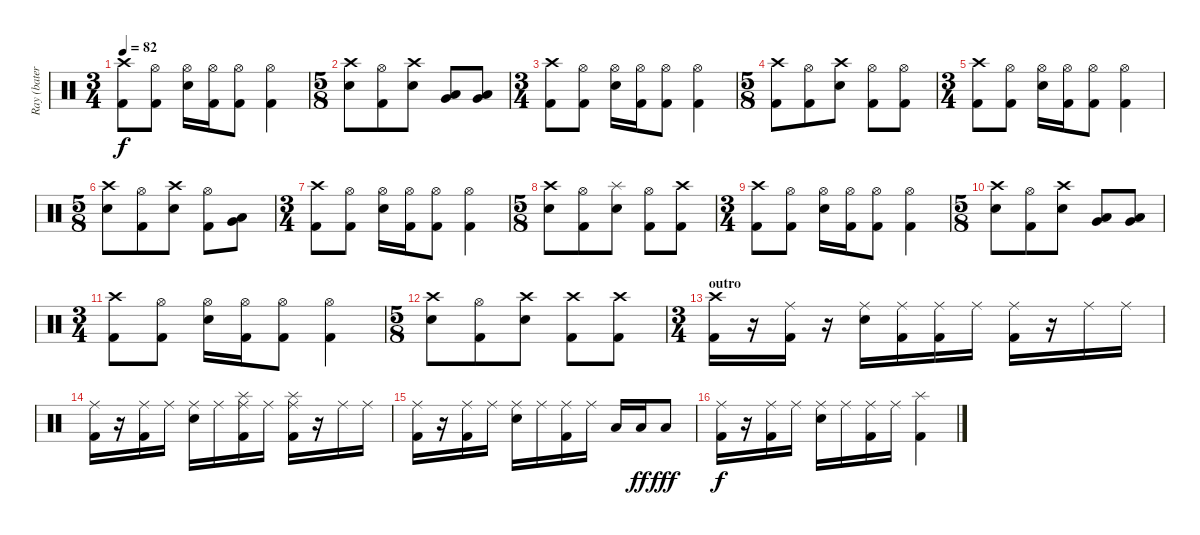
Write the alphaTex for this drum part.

\track ("Ray (batería)" "Ray (bater") {instrument percussion}
\staff {score}
\articulation defaults
\ts (3 4)
\tempo 82
\clef neutral
\ks c
("Crash high (hit)" "Kick (hit) 2").8{dy f} ("Hi-Hat (open)" "Kick (hit) 2").8 ("Hi-Hat (open)" "Snare (hit) 2").16 ("Hi-Hat (open)" "Kick (hit) 2").16 ("Hi-Hat (open)" "Kick (hit) 2").8 ("Hi-Hat (open)" "Kick (hit) 2").4 |
\ts (5 8)
("Crash high (hit)" "Snare (hit) 2").8 ("Hi-Hat (open)" "Kick (hit) 2").8 ("Crash high (hit)" "Snare (hit) 2").8 ("Low Tom (hit)" "Very Low Tom (hit)").8 ("Low Tom (hit)" "Very Low Tom (hit)").8 |
\ts (3 4)
("Crash high (hit)" "Kick (hit) 2").8 ("Hi-Hat (open)" "Kick (hit) 2").8 ("Hi-Hat (open)" "Snare (hit) 2").16 ("Hi-Hat (open)" "Kick (hit) 2").16 ("Hi-Hat (open)" "Kick (hit) 2").8 ("Hi-Hat (open)" "Kick (hit) 2").4 |
\ts (5 8)
("Crash high (hit)" "Kick (hit) 2").8 ("Hi-Hat (open)" "Kick (hit) 2").8 ("Crash high (hit)" "Snare (hit) 2").8 ("Hi-Hat (open)" "Kick (hit) 2").8 ("Hi-Hat (open)" "Kick (hit) 2").8 |
\ts (3 4)
("Crash high (hit)" "Kick (hit) 2").8 ("Hi-Hat (open)" "Kick (hit) 2").8 ("Hi-Hat (open)" "Snare (hit) 2").16 ("Hi-Hat (open)" "Kick (hit) 2").16 ("Hi-Hat (open)" "Kick (hit) 2").8 ("Hi-Hat (open)" "Kick (hit) 2").4 |
\ts (5 8)
("Crash high (hit)" "Snare (hit) 2").8 ("Hi-Hat (open)" "Kick (hit) 2").8 ("Crash high (hit)" "Snare (hit) 2").8 ("Hi-Hat (open)" "Kick (hit) 2").8 ("Low Tom (hit)" "Very Low Tom (hit)").8 |
\ts (3 4)
("Crash high (hit)" "Kick (hit) 2").8 ("Hi-Hat (open)" "Kick (hit) 2").8 ("Hi-Hat (open)" "Snare (hit) 2").16 ("Hi-Hat (open)" "Kick (hit) 2").16 ("Hi-Hat (open)" "Kick (hit) 2").8 ("Hi-Hat (open)" "Kick (hit) 2").4 |
\ts (5 8)
("Crash high (hit)" "Snare (hit) 2").8 ("Hi-Hat (open)" "Kick (hit) 2").8 ("Splash (hit)" "Snare (hit) 2").8 ("Hi-Hat (open)" "Kick (hit) 2").8 ("Crash high (hit)" "Kick (hit) 2").8 |
\ts (3 4)
("Crash high (hit)" "Kick (hit) 2").8 ("Hi-Hat (open)" "Kick (hit) 2").8 ("Hi-Hat (open)" "Snare (hit) 2").16 ("Hi-Hat (open)" "Kick (hit) 2").16 ("Hi-Hat (open)" "Kick (hit) 2").8 ("Hi-Hat (open)" "Kick (hit) 2").4 |
\ts (5 8)
("Crash high (hit)" "Snare (hit) 2").8 ("Hi-Hat (open)" "Kick (hit) 2").8 ("Crash high (hit)" "Snare (hit) 2").8 ("Low Tom (hit)" "Very Low Tom (hit)").8 ("Low Tom (hit)" "Very Low Tom (hit)").8 |
\ts (3 4)
("Crash high (hit)" "Kick (hit) 2").8 ("Hi-Hat (open)" "Kick (hit) 2").8 ("Hi-Hat (open)" "Snare (hit) 2").16 ("Hi-Hat (open)" "Kick (hit) 2").16 ("Hi-Hat (open)" "Kick (hit) 2").8 ("Hi-Hat (open)" "Kick (hit) 2").4 |
\ts (5 8)
("Crash high (hit)" "Snare (hit) 2").8 ("Hi-Hat (open)" "Kick (hit) 2").8 ("Crash high (hit)" "Snare (hit) 2").8 ("Crash high (hit)" "Kick (hit) 2").8 ("Crash high (hit)" "Kick (hit) 2").8 |
\ts (3 4)
\section ("" "outro")
("Crash high (hit)" "Kick (hit) 2").16 r.16 ("Ride (middle)" "Kick (hit) 2").16 r.16 ("Ride (middle)" "Snare (hit) 2").16 ("Ride (middle)" "Kick (hit) 2").16 ("Ride (middle)" "Kick (hit) 2").16 "Ride (middle)".16 ("Ride (middle)" "Kick (hit) 2").16 r.16 "Ride (middle)".16 "Ride (middle)".16 |
("Ride (middle)" "Kick (hit) 2").16 r.16 ("Ride (middle)" "Kick (hit) 2").16 "Ride (middle)".16 ("Ride (middle)" "Snare (hit) 2").16 "Ride (middle)".16 ("Ride (middle)" "Splash (hit)" "Kick (hit) 2").16 "Ride (middle)".16 ("Ride (middle)" "Splash (hit)" "Kick (hit) 2").16 r.16 "Ride (middle)".16 "Ride (middle)".16 |
("Ride (middle)" "Kick (hit) 2").16 r.16 ("Ride (middle)" "Kick (hit) 2").16 "Ride (middle)".16 ("Ride (middle)" "Snare (hit) 2").16 "Ride (middle)".16 ("Ride (middle)" "Kick (hit) 2").16 "Ride (middle)".16 "Low Tom (hit)".16 "Low Tom (hit)".16{dy ff} "Low Tom (hit)".8{dy fff} |
("Ride (middle)" "Kick (hit) 2").16{dy f} r.16 ("Ride (middle)" "Kick (hit) 2").16 "Ride (middle)".16 ("Ride (middle)" "Snare (hit) 2").16 "Ride (middle)".16 ("Ride (middle)" "Kick (hit) 2").16 "Ride (middle)".16 ("Splash (hit)" "Kick (hit) 2").4
